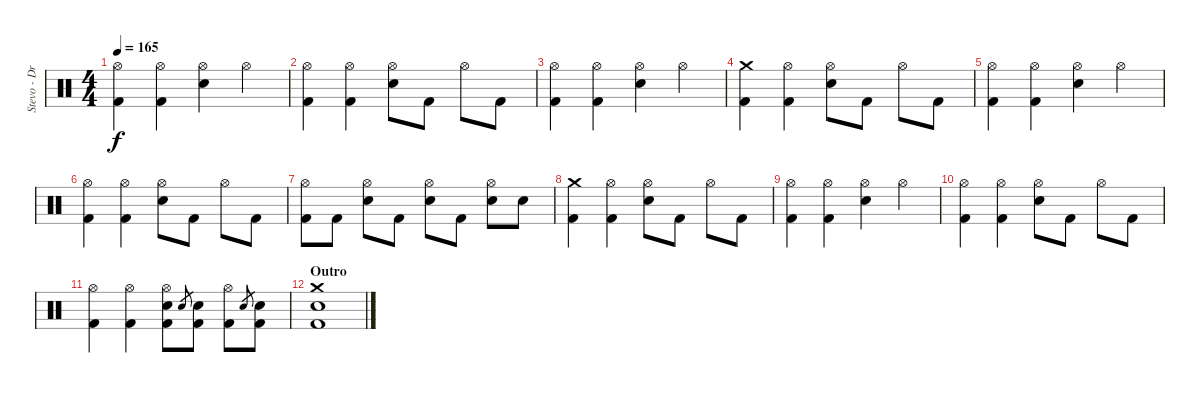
\track ("Stevo - Drums" "Stevo - Dr") {instrument percussion}
\staff {score}
\articulation defaults
\ts (4 4)
\tempo 165
\clef neutral
\ks c
("Hi-Hat (open)" "Kick (hit) 2").4{dy f} ("Hi-Hat (open)" "Kick (hit) 2").4 ("Electric Snare (hit)" "Hi-Hat (open)").4 "Hi-Hat (open)".4 |
("Hi-Hat (open)" "Kick (hit) 2").4 ("Hi-Hat (open)" "Kick (hit) 2").4 ("Electric Snare (hit)" "Hi-Hat (open)").8 "Kick (hit) 2".8 "Hi-Hat (open)".8 "Kick (hit) 2".8 |
("Hi-Hat (open)" "Kick (hit) 2").4 ("Hi-Hat (open)" "Kick (hit) 2").4 ("Electric Snare (hit)" "Hi-Hat (open)").4 "Hi-Hat (open)".4 |
("Crash medium (hit)" "Kick (hit) 2").4 ("Hi-Hat (open)" "Kick (hit) 2").4 ("Electric Snare (hit)" "Hi-Hat (open)").8 "Kick (hit) 2".8 "Hi-Hat (open)".8 "Kick (hit) 2".8 |
("Hi-Hat (open)" "Kick (hit) 2").4 ("Hi-Hat (open)" "Kick (hit) 2").4 ("Electric Snare (hit)" "Hi-Hat (open)").4 "Hi-Hat (open)".4 |
("Hi-Hat (open)" "Kick (hit) 2").4 ("Hi-Hat (open)" "Kick (hit) 2").4 ("Electric Snare (hit)" "Hi-Hat (open)").8 "Kick (hit) 2".8 "Hi-Hat (open)".8 "Kick (hit) 2".8 |
("Hi-Hat (open)" "Kick (hit) 2").8 "Kick (hit) 2".8 ("Hi-Hat (open)" "Electric Snare (hit)").8 "Kick (hit) 2".8 ("Hi-Hat (open)" "Electric Snare (hit)").8 "Kick (hit) 2".8 ("Hi-Hat (open)" "Electric Snare (hit)").8 "Electric Snare (hit)".8 |
("Crash medium (hit)" "Kick (hit) 2").4 ("Hi-Hat (open)" "Kick (hit) 2").4 ("Electric Snare (hit)" "Hi-Hat (open)").8 "Kick (hit) 2".8 "Hi-Hat (open)".8 "Kick (hit) 2".8 |
("Hi-Hat (open)" "Kick (hit) 2").4 ("Hi-Hat (open)" "Kick (hit) 2").4 ("Electric Snare (hit)" "Hi-Hat (open)").4 "Hi-Hat (open)".4 |
("Hi-Hat (open)" "Kick (hit) 2").4 ("Hi-Hat (open)" "Kick (hit) 2").4 ("Electric Snare (hit)" "Hi-Hat (open)").8 "Kick (hit) 2".8 "Hi-Hat (open)".8 "Kick (hit) 2".8 |
("Hi-Hat (open)" "Kick (hit) 2").4 ("Hi-Hat (open)" "Kick (hit) 2").4 ("Electric Snare (hit)" "Hi-Hat (open)" "Kick (hit) 2").8 "Electric Snare (hit)".8{gr} ("Electric Snare (hit)" "Kick (hit) 2").8 ("Hi-Hat (open)" "Kick (hit) 2").8 "Electric Snare (hit)".8{gr} ("Electric Snare (hit)" "Kick (hit) 2").8 |
\section ("" "Outro")
("Crash medium (hit)" "Electric Snare (hit)" "Kick (hit) 2").1
